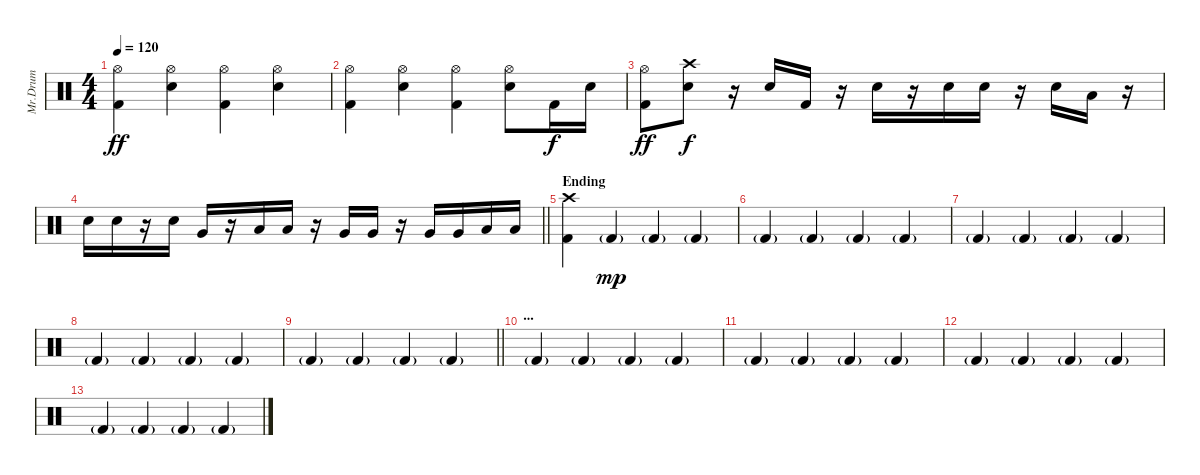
\track ("Mr.Drum" "Mr.Drum") {instrument percussion}
\staff {score}
\articulation defaults
\ts (4 4)
\tempo 120
\clef neutral
\ks c
("Hi-Hat (open)" "Kick (hit) 2").4{dy ff} ("Hi-Hat (open)" "Electric Snare (hit)").4 ("Hi-Hat (open)" "Kick (hit) 2").4 ("Hi-Hat (open)" "Electric Snare (hit)").4 |
("Hi-Hat (open)" "Kick (hit) 2").4 ("Hi-Hat (open)" "Electric Snare (hit)").4 ("Hi-Hat (open)" "Kick (hit) 2").4 ("Hi-Hat (open)" "Electric Snare (hit)").8 "Kick (hit) 2".16{dy f} "Electric Snare (hit)".16 |
("Hi-Hat (open)" "Kick (hit) 2").8{dy ff} ("Crash high (hit)" "Electric Snare (hit)").8{dy f} r.16 "Electric Snare (hit)".16 "Kick (hit) 2".16 r.16 "Electric Snare (hit)".16 r.16 "Electric Snare (hit)".16 "Electric Snare (hit)".16 r.16 "Electric Snare (hit)".16 "Low Floor Tom (hit)".16 r.16 |
\barLineRight lightlight "Electric Snare (hit)".16 "Electric Snare (hit)".16
r.16 "Electric Snare (hit)".16 "Very Low Tom (hit)".16 r.16 "Low Tom (hit)".16 "Low Tom (hit)".16 r.16 "Very Low Tom (hit)".16 "Very Low Tom (hit)".16 r.16 "Very Low Tom (hit)".16 "Very Low Tom (hit)".16 "Low Floor Tom (hit)".16 "Low Floor Tom (hit)".16 |
\section ("" "Ending")
("Crash high (hit)" "Kick (hit) 2").4 "Kick (hit) 2"{g}.4{dy mp} "Kick (hit) 2"{g}.4 "Kick (hit) 2"{g}.4 |
"Kick (hit) 2"{g}.4 "Kick (hit) 2"{g}.4 "Kick (hit) 2"{g}.4 "Kick (hit) 2"{g}.4 |
"Kick (hit) 2"{g}.4 "Kick (hit) 2"{g}.4 "Kick (hit) 2"{g}.4 "Kick (hit) 2"{g}.4 |
"Kick (hit) 2"{g}.4 "Kick (hit) 2"{g}.4 "Kick (hit) 2"{g}.4 "Kick (hit) 2"{g}.4 |
\barLineRight lightlight "Kick (hit) 2"{g}.4 "Kick (hit) 2"{g}.4 "Kick (hit) 2"{g}.4 "Kick (hit) 2"{g}.4
|
\section ("" "...")
"Kick (hit) 2"{g}.4 "Kick (hit) 2"{g}.4 "Kick (hit) 2"{g}.4 "Kick (hit) 2"{g}.4 |
"Kick (hit) 2"{g}.4 "Kick (hit) 2"{g}.4 "Kick (hit) 2"{g}.4 "Kick (hit) 2"{g}.4 |
"Kick (hit) 2"{g}.4 "Kick (hit) 2"{g}.4 "Kick (hit) 2"{g}.4 "Kick (hit) 2"{g}.4 |
"Kick (hit) 2"{g}.4 "Kick (hit) 2"{g}.4 "Kick (hit) 2"{g}.4 "Kick (hit) 2"{g}.4
